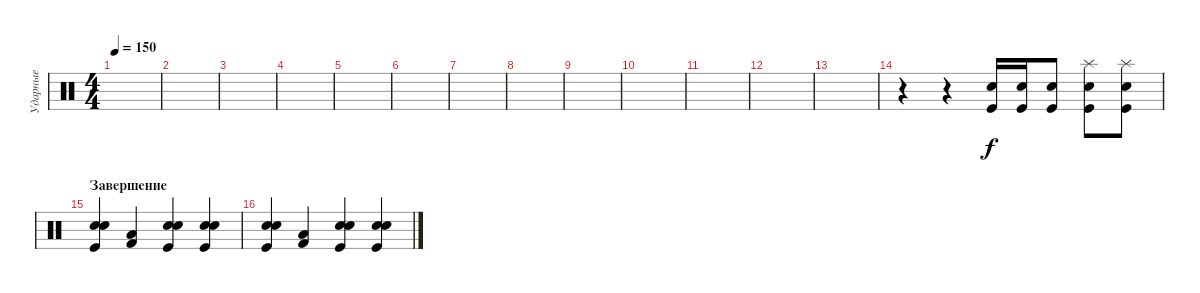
\track ("Ударные" "Ударные") {instrument percussion}
\staff {score}
\articulation defaults
\ts (4 4)
\tempo 150
\clef neutral
\ks c
|
|
|
|
|
|
|
|
|
|
|
|
|
r.4 r.4 ("Kick (hit)" "Electric Snare (hit)").16 ("Kick (hit)" "Electric Snare (hit)").16 ("Kick (hit)" "Electric Snare (hit)").8 ("Kick (hit)" "Electric Snare (hit)" "Splash (hit)").8 ("Kick (hit)" "Electric Snare (hit)" "Splash (hit)").8 |
\section ("" "Завершение")
("Electric Snare (hit)" "Kick (hit)" "Snare (hit) 2").4 ("Kick (hit) 2" "Low Tom (hit)").4 ("Electric Snare (hit)" "Kick (hit)" "Snare (hit) 2").4 ("Electric Snare (hit)" "Kick (hit)" "Snare (hit) 2").4 |
("Electric Snare (hit)" "Kick (hit)" "Snare (hit) 2").4 ("Kick (hit) 2" "Low Tom (hit)").4 ("Electric Snare (hit)" "Kick (hit)" "Snare (hit) 2").4 ("Electric Snare (hit)" "Kick (hit)" "Snare (hit) 2").4
